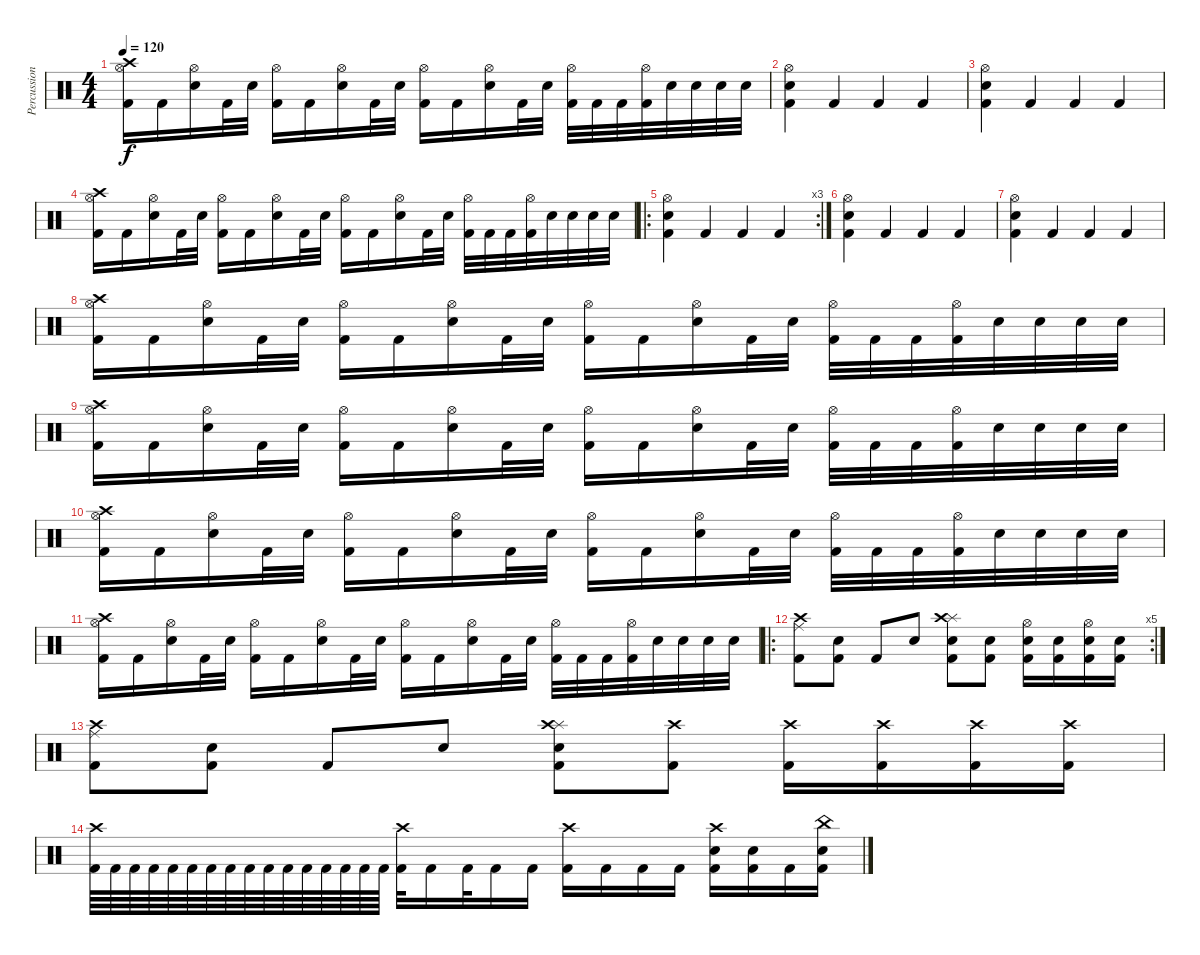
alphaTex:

\track ("Percussions" "Percussion") {instrument percussion}
\staff {score}
\articulation defaults
\ts (4 4)
\tempo 120
\clef neutral
\ks c
("Crash high (hit)" "Hi-Hat (open)" "Kick (hit) 2").16{dy f} "Kick (hit) 2".16 ("Hi-Hat (open)" "Electric Snare (hit)").16 "Kick (hit) 2".32 "Electric Snare (hit)".32 ("Hi-Hat (open)" "Kick (hit) 2").16 "Kick (hit) 2".16 ("Hi-Hat (open)" "Electric Snare (hit)").16 "Kick (hit) 2".32 "Electric Snare (hit)".32 ("Hi-Hat (open)" "Kick (hit) 2").16 "Kick (hit) 2".16 ("Hi-Hat (open)" "Electric Snare (hit)").16 "Kick (hit) 2".32 "Electric Snare (hit)".32 ("Hi-Hat (open)" "Kick (hit) 2").32 "Kick (hit) 2".32 "Kick (hit) 2".32 ("Hi-Hat (open)" "Kick (hit) 2").32 "Electric Snare (hit)".32 "Electric Snare (hit)".32 "Electric Snare (hit)".32 "Electric Snare (hit)".32 |
("Hi-Hat (open)" "Electric Snare (hit)" "Kick (hit) 2").4 "Kick (hit) 2".4 "Kick (hit) 2".4 "Kick (hit) 2".4 |
("Hi-Hat (open)" "Electric Snare (hit)" "Kick (hit) 2").4 "Kick (hit) 2".4 "Kick (hit) 2".4 "Kick (hit) 2".4 |
("Crash high (hit)" "Hi-Hat (open)" "Kick (hit) 2").16 "Kick (hit) 2".16 ("Hi-Hat (open)" "Electric Snare (hit)").16 "Kick (hit) 2".32 "Electric Snare (hit)".32 ("Hi-Hat (open)" "Kick (hit) 2").16 "Kick (hit) 2".16 ("Hi-Hat (open)" "Electric Snare (hit)").16 "Kick (hit) 2".32 "Electric Snare (hit)".32 ("Hi-Hat (open)" "Kick (hit) 2").16 "Kick (hit) 2".16 ("Hi-Hat (open)" "Electric Snare (hit)").16 "Kick (hit) 2".32 "Electric Snare (hit)".32 ("Hi-Hat (open)" "Kick (hit) 2").32 "Kick (hit) 2".32 "Kick (hit) 2".32 ("Hi-Hat (open)" "Kick (hit) 2").32 "Electric Snare (hit)".32 "Electric Snare (hit)".32 "Electric Snare (hit)".32 "Electric Snare (hit)".32 |
\ro
\rc 3
("Hi-Hat (open)" "Electric Snare (hit)" "Kick (hit) 2").4 "Kick (hit) 2".4 "Kick (hit) 2".4 "Kick (hit) 2".4 |
("Hi-Hat (open)" "Electric Snare (hit)" "Kick (hit) 2").4 "Kick (hit) 2".4 "Kick (hit) 2".4 "Kick (hit) 2".4 |
("Hi-Hat (open)" "Electric Snare (hit)" "Kick (hit) 2").4 "Kick (hit) 2".4 "Kick (hit) 2".4 "Kick (hit) 2".4 |
("Crash high (hit)" "Hi-Hat (open)" "Kick (hit) 2").16 "Kick (hit) 2".16 ("Hi-Hat (open)" "Electric Snare (hit)").16 "Kick (hit) 2".32 "Electric Snare (hit)".32 ("Hi-Hat (open)" "Kick (hit) 2").16 "Kick (hit) 2".16 ("Hi-Hat (open)" "Electric Snare (hit)").16 "Kick (hit) 2".32 "Electric Snare (hit)".32 ("Hi-Hat (open)" "Kick (hit) 2").16 "Kick (hit) 2".16 ("Hi-Hat (open)" "Electric Snare (hit)").16 "Kick (hit) 2".32 "Electric Snare (hit)".32 ("Hi-Hat (open)" "Kick (hit) 2").32 "Kick (hit) 2".32 "Kick (hit) 2".32 ("Hi-Hat (open)" "Kick (hit) 2").32 "Electric Snare (hit)".32 "Electric Snare (hit)".32 "Electric Snare (hit)".32 "Electric Snare (hit)".32 |
("Crash high (hit)" "Hi-Hat (open)" "Kick (hit) 2").16 "Kick (hit) 2".16 ("Hi-Hat (open)" "Electric Snare (hit)").16 "Kick (hit) 2".32 "Electric Snare (hit)".32 ("Hi-Hat (open)" "Kick (hit) 2").16 "Kick (hit) 2".16 ("Hi-Hat (open)" "Electric Snare (hit)").16 "Kick (hit) 2".32 "Electric Snare (hit)".32 ("Hi-Hat (open)" "Kick (hit) 2").16 "Kick (hit) 2".16 ("Hi-Hat (open)" "Electric Snare (hit)").16 "Kick (hit) 2".32 "Electric Snare (hit)".32 ("Hi-Hat (open)" "Kick (hit) 2").32 "Kick (hit) 2".32 "Kick (hit) 2".32 ("Hi-Hat (open)" "Kick (hit) 2").32 "Electric Snare (hit)".32 "Electric Snare (hit)".32 "Electric Snare (hit)".32 "Electric Snare (hit)".32 |
("Crash high (hit)" "Hi-Hat (open)" "Kick (hit) 2").16 "Kick (hit) 2".16 ("Hi-Hat (open)" "Electric Snare (hit)").16 "Kick (hit) 2".32 "Electric Snare (hit)".32 ("Hi-Hat (open)" "Kick (hit) 2").16 "Kick (hit) 2".16 ("Hi-Hat (open)" "Electric Snare (hit)").16 "Kick (hit) 2".32 "Electric Snare (hit)".32 ("Hi-Hat (open)" "Kick (hit) 2").16 "Kick (hit) 2".16 ("Hi-Hat (open)" "Electric Snare (hit)").16 "Kick (hit) 2".32 "Electric Snare (hit)".32 ("Hi-Hat (open)" "Kick (hit) 2").32 "Kick (hit) 2".32 "Kick (hit) 2".32 ("Hi-Hat (open)" "Kick (hit) 2").32 "Electric Snare (hit)".32 "Electric Snare (hit)".32 "Electric Snare (hit)".32 "Electric Snare (hit)".32 |
("Crash high (hit)" "Hi-Hat (open)" "Kick (hit) 2").16 "Kick (hit) 2".16 ("Hi-Hat (open)" "Electric Snare (hit)").16 "Kick (hit) 2".32 "Electric Snare (hit)".32 ("Hi-Hat (open)" "Kick (hit) 2").16 "Kick (hit) 2".16 ("Hi-Hat (open)" "Electric Snare (hit)").16 "Kick (hit) 2".32 "Electric Snare (hit)".32 ("Hi-Hat (open)" "Kick (hit) 2").16 "Kick (hit) 2".16 ("Hi-Hat (open)" "Electric Snare (hit)").16 "Kick (hit) 2".32 "Electric Snare (hit)".32 ("Hi-Hat (open)" "Kick (hit) 2").32 "Kick (hit) 2".32 "Kick (hit) 2".32 ("Hi-Hat (open)" "Kick (hit) 2").32 "Electric Snare (hit)".32 "Electric Snare (hit)".32 "Electric Snare (hit)".32 "Electric Snare (hit)".32 |
\ro
\rc 5
("Ride (middle)" "Crash high (hit)" "Kick (hit) 2").8 ("Electric Snare (hit)" "Kick (hit) 2").8 "Kick (hit) 2".8 "Electric Snare (hit)".8 ("Electric Snare (hit)" "Splash (hit)" "Crash high (hit)" "Kick (hit) 2").8 ("Electric Snare (hit)" "Kick (hit) 2").8 ("Hi-Hat (open)" "Electric Snare (hit)" "Kick (hit) 2").16 ("Electric Snare (hit)" "Kick (hit) 2").16 ("Hi-Hat (open)" "Electric Snare (hit)" "Kick (hit) 2").16 ("Electric Snare (hit)" "Kick (hit) 2").16 |
("Ride (middle)" "Crash high (hit)" "Kick (hit) 2").8 ("Electric Snare (hit)" "Kick (hit) 2").8 "Kick (hit) 2".8 "Electric Snare (hit)".8 ("Electric Snare (hit)" "Splash (hit)" "Crash high (hit)" "Kick (hit) 2").8 ("Crash high (hit)" "Kick (hit) 2").8 ("Crash high (hit)" "Kick (hit) 2").16 ("Crash high (hit)" "Kick (hit) 2").16 ("Crash high (hit)" "Kick (hit) 2").16 ("Crash high (hit)" "Kick (hit) 2").16 |
("Crash high (hit)" "Kick (hit) 2").64 "Kick (hit) 2".64 "Kick (hit) 2".64 "Kick (hit) 2".64 "Kick (hit) 2".64 "Kick (hit) 2".64 "Kick (hit) 2".64 "Kick (hit) 2".64 "Kick (hit) 2".64 "Kick (hit) 2".64 "Kick (hit) 2".64 "Kick (hit) 2".64 "Kick (hit) 2".64 "Kick (hit) 2".64 "Kick (hit) 2".64 "Kick (hit) 2".64 ("Crash high (hit)" "Kick (hit) 2").32 "Kick (hit) 2".16 "Kick (hit) 2".32 "Kick (hit) 2".16 "Kick (hit) 2".16 ("Crash high (hit)" "Kick (hit) 2").16 "Kick (hit) 2".16 "Kick (hit) 2".16 "Kick (hit) 2".16 ("Electric Snare (hit)" "Crash high (hit)" "Kick (hit) 2").16 ("Electric Snare (hit)" "Kick (hit) 2").16 "Kick (hit) 2".16 ("China (hit)" "Electric Snare (hit)" "Kick (hit) 2").16
